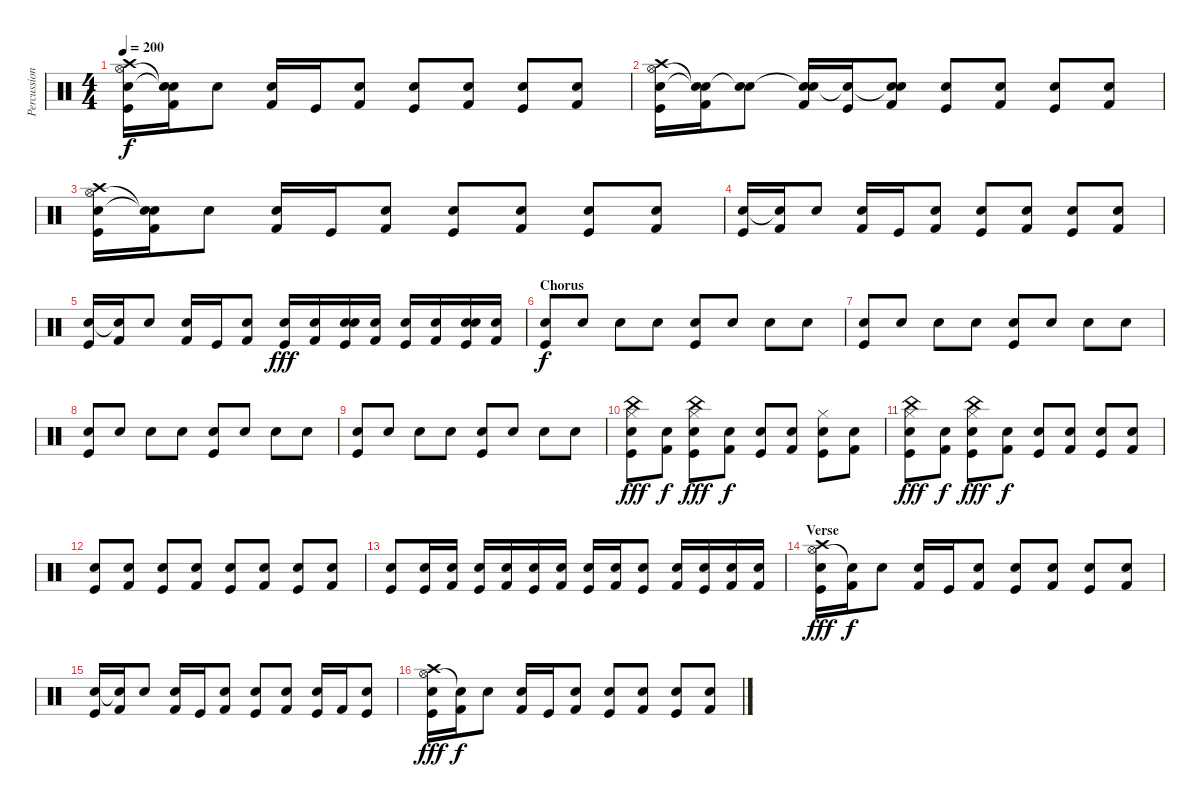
\track ("Percussion" "Percussion") {instrument percussion}
\staff {score}
\articulation defaults
\ts (4 4)
\tempo 200
\clef neutral
\ks c
("Hi-Hat (open)" "Snare (hit) 2" "Crash high (hit)" "Kick (hit)").16{dy f} ("Snare (hit)"{t} "Snare (hit) 2"{t} "Kick (hit) 2").16 "Electric Snare (hit)".8 ("Snare (hit) 2" "Kick (hit) 2").16 "Kick (hit)".16 ("Electric Snare (hit)" "Kick (hit) 2").8 ("Snare (hit) 2" "Kick (hit)").8 ("Electric Snare (hit)" "Kick (hit) 2").8 ("Snare (hit) 2" "Kick (hit)").8 ("Electric Snare (hit)" "Kick (hit) 2").8 |
("Hi-Hat (open)" "Snare (hit) 2" "Crash high (hit)" "Kick (hit)").16 ("Snare (hit)"{t} "Snare (hit) 2"{t} "Kick (hit) 2").16 ("Snare (hit)"{t} "Electric Snare (hit)").8 ("Snare (hit)"{t} "Snare (hit) 2" "Kick (hit) 2").16 ("Snare (hit)"{t} "Kick (hit)").16 ("Snare (hit)"{t} "Electric Snare (hit)" "Kick (hit) 2").8 ("Snare (hit) 2" "Kick (hit)").8 ("Electric Snare (hit)" "Kick (hit) 2").8 ("Snare (hit) 2" "Kick (hit)").8 ("Electric Snare (hit)" "Kick (hit) 2").8 |
("Hi-Hat (open)" "Snare (hit) 2" "Crash high (hit)" "Kick (hit)").16 ("Snare (hit)"{t} "Snare (hit) 2"{t} "Kick (hit) 2").16 "Electric Snare (hit)".8 ("Snare (hit) 2" "Kick (hit) 2").16 "Kick (hit)".16 ("Electric Snare (hit)" "Kick (hit) 2").8 ("Snare (hit) 2" "Kick (hit)").8 ("Electric Snare (hit)" "Kick (hit) 2").8 ("Snare (hit) 2" "Kick (hit)").8 ("Electric Snare (hit)" "Kick (hit) 2").8 |
("Snare (hit) 2" "Kick (hit)").16 ("Snare (hit) 2"{t} "Kick (hit) 2").16 "Electric Snare (hit)".8 ("Snare (hit) 2" "Kick (hit) 2").16 "Kick (hit)".16 ("Electric Snare (hit)" "Kick (hit) 2").8 ("Snare (hit) 2" "Kick (hit)").8 ("Electric Snare (hit)" "Kick (hit) 2").8 ("Snare (hit) 2" "Kick (hit)").8 ("Electric Snare (hit)" "Kick (hit) 2").8 |
("Snare (hit) 2" "Kick (hit)").16 ("Snare (hit) 2"{t} "Kick (hit) 2").16 "Electric Snare (hit)".8 ("Snare (hit) 2" "Kick (hit) 2").16 "Kick (hit)".16 ("Electric Snare (hit)" "Kick (hit) 2").8 ("Snare (hit) 2" "Kick (hit)").16{dy fff} ("Snare (hit) 2" "Kick (hit) 2").16 ("Snare (hit) 2" "Electric Snare (hit)" "Kick (hit)").16 ("Snare (hit) 2" "Kick (hit) 2").16 ("Electric Snare (hit)" "Kick (hit)").16 ("Snare (hit) 2" "Kick (hit) 2").16 ("Snare (hit) 2" "Electric Snare (hit)" "Kick (hit)").16 ("Electric Snare (hit)" "Kick (hit) 2").16 |
\section ("" "Chorus")
("Snare (hit) 2" "Kick (hit)").8{dy f} "Snare (hit) 2".8 "Electric Snare (hit)".8 "Snare (hit) 2".8 ("Snare (hit) 2" "Kick (hit)").8 "Snare (hit) 2".8 "Electric Snare (hit)".8 "Snare (hit) 2".8 |
("Snare (hit) 2" "Kick (hit)").8 "Snare (hit) 2".8 "Electric Snare (hit)".8 "Snare (hit) 2".8 ("Snare (hit) 2" "Kick (hit)").8 "Snare (hit) 2".8 "Electric Snare (hit)".8 "Snare (hit) 2".8 |
("Snare (hit) 2" "Kick (hit)").8 "Snare (hit) 2".8 "Electric Snare (hit)".8 "Snare (hit) 2".8 ("Snare (hit) 2" "Kick (hit)").8 "Snare (hit) 2".8 "Electric Snare (hit)".8 "Snare (hit) 2".8 |
("Snare (hit) 2" "Kick (hit)").8 "Snare (hit) 2".8 "Electric Snare (hit)".8 "Snare (hit) 2".8 ("Snare (hit) 2" "Kick (hit)").8 "Snare (hit) 2".8 "Electric Snare (hit)".8 "Snare (hit) 2".8 |
("Snare (hit) 2" "Kick (hit)" "China (hit)" "Hi-Hat (closed)").8{dy fff} ("Electric Snare (hit)" "Kick (hit) 2").8{dy f} ("Snare (hit) 2" "Kick (hit)" "China (hit)" "Hi-Hat (closed)").8{dy fff} ("Electric Snare (hit)" "Kick (hit) 2").8{dy f} ("Snare (hit) 2" "Kick (hit)").8 ("Electric Snare (hit)" "Kick (hit) 2").8 ("Snare (hit) 2" "Kick (hit)" "Hi-Hat (closed)").8 ("Electric Snare (hit)" "Kick (hit) 2").8 |
("Snare (hit) 2" "Kick (hit)" "China (hit)" "Hi-Hat (closed)").8{dy fff} ("Electric Snare (hit)" "Kick (hit) 2").8{dy f} ("Snare (hit) 2" "Kick (hit)" "China (hit)" "Hi-Hat (closed)").8{dy fff} ("Electric Snare (hit)" "Kick (hit) 2").8{dy f} ("Snare (hit) 2" "Kick (hit)").8 ("Electric Snare (hit)" "Kick (hit) 2").8 ("Snare (hit) 2" "Kick (hit)").8 ("Electric Snare (hit)" "Kick (hit) 2").8 |
("Snare (hit) 2" "Kick (hit)").8 ("Electric Snare (hit)" "Kick (hit) 2").8 ("Snare (hit) 2" "Kick (hit)").8 ("Electric Snare (hit)" "Kick (hit) 2").8 ("Snare (hit) 2" "Kick (hit)").8 ("Electric Snare (hit)" "Kick (hit) 2").8 ("Snare (hit) 2" "Kick (hit)").8 ("Electric Snare (hit)" "Kick (hit) 2").8 |
("Snare (hit) 2" "Kick (hit)").8 ("Snare (hit) 2" "Kick (hit)").16 ("Electric Snare (hit)" "Kick (hit) 2").16 ("Electric Snare (hit)" "Kick (hit)").16 ("Snare (hit) 2" "Kick (hit) 2").16 ("Electric Snare (hit)" "Kick (hit)").16 ("Electric Snare (hit)" "Kick (hit) 2").16 ("Snare (hit) 2" "Kick (hit)").16 ("Electric Snare (hit)" "Kick (hit) 2").16 ("Electric Snare (hit)" "Kick (hit)").8 ("Snare (hit) 2" "Kick (hit) 2").16 ("Electric Snare (hit)" "Kick (hit)").16 ("Electric Snare (hit)" "Kick (hit) 2").16 ("Electric Snare (hit)" "Kick (hit) 2").16 |
\section ("" "Verse")
("Hi-Hat (open)" "Snare (hit) 2" "Crash high (hit)" "Kick (hit)").16{dy fff} ("Snare (hit) 2"{t} "Kick (hit) 2").16{dy f} "Electric Snare (hit)".8 ("Snare (hit) 2" "Kick (hit) 2").16 "Kick (hit)".16 ("Electric Snare (hit)" "Kick (hit) 2").8 ("Snare (hit) 2" "Kick (hit)").8 ("Electric Snare (hit)" "Kick (hit) 2").8 ("Snare (hit) 2" "Kick (hit)").8 ("Electric Snare (hit)" "Kick (hit) 2").8 |
("Snare (hit) 2" "Kick (hit)").16 ("Snare (hit) 2"{t} "Kick (hit) 2").16 "Electric Snare (hit)".8 ("Snare (hit) 2" "Kick (hit) 2").16 "Kick (hit)".16 ("Electric Snare (hit)" "Kick (hit) 2").8 ("Snare (hit) 2" "Kick (hit)").8 ("Snare (hit) 2" "Kick (hit) 2").8 ("Electric Snare (hit)" "Kick (hit)").16 "Kick (hit) 2".16 ("Electric Snare (hit)" "Kick (hit)").8 |
("Hi-Hat (open)" "Snare (hit) 2" "Crash high (hit)" "Kick (hit)").16{dy fff} ("Snare (hit) 2"{t} "Kick (hit) 2").16{dy f} "Electric Snare (hit)".8 ("Snare (hit) 2" "Kick (hit) 2").16 "Kick (hit)".16 ("Electric Snare (hit)" "Kick (hit) 2").8 ("Snare (hit) 2" "Kick (hit)").8 ("Electric Snare (hit)" "Kick (hit) 2").8 ("Snare (hit) 2" "Kick (hit)").8 ("Electric Snare (hit)" "Kick (hit) 2").8
